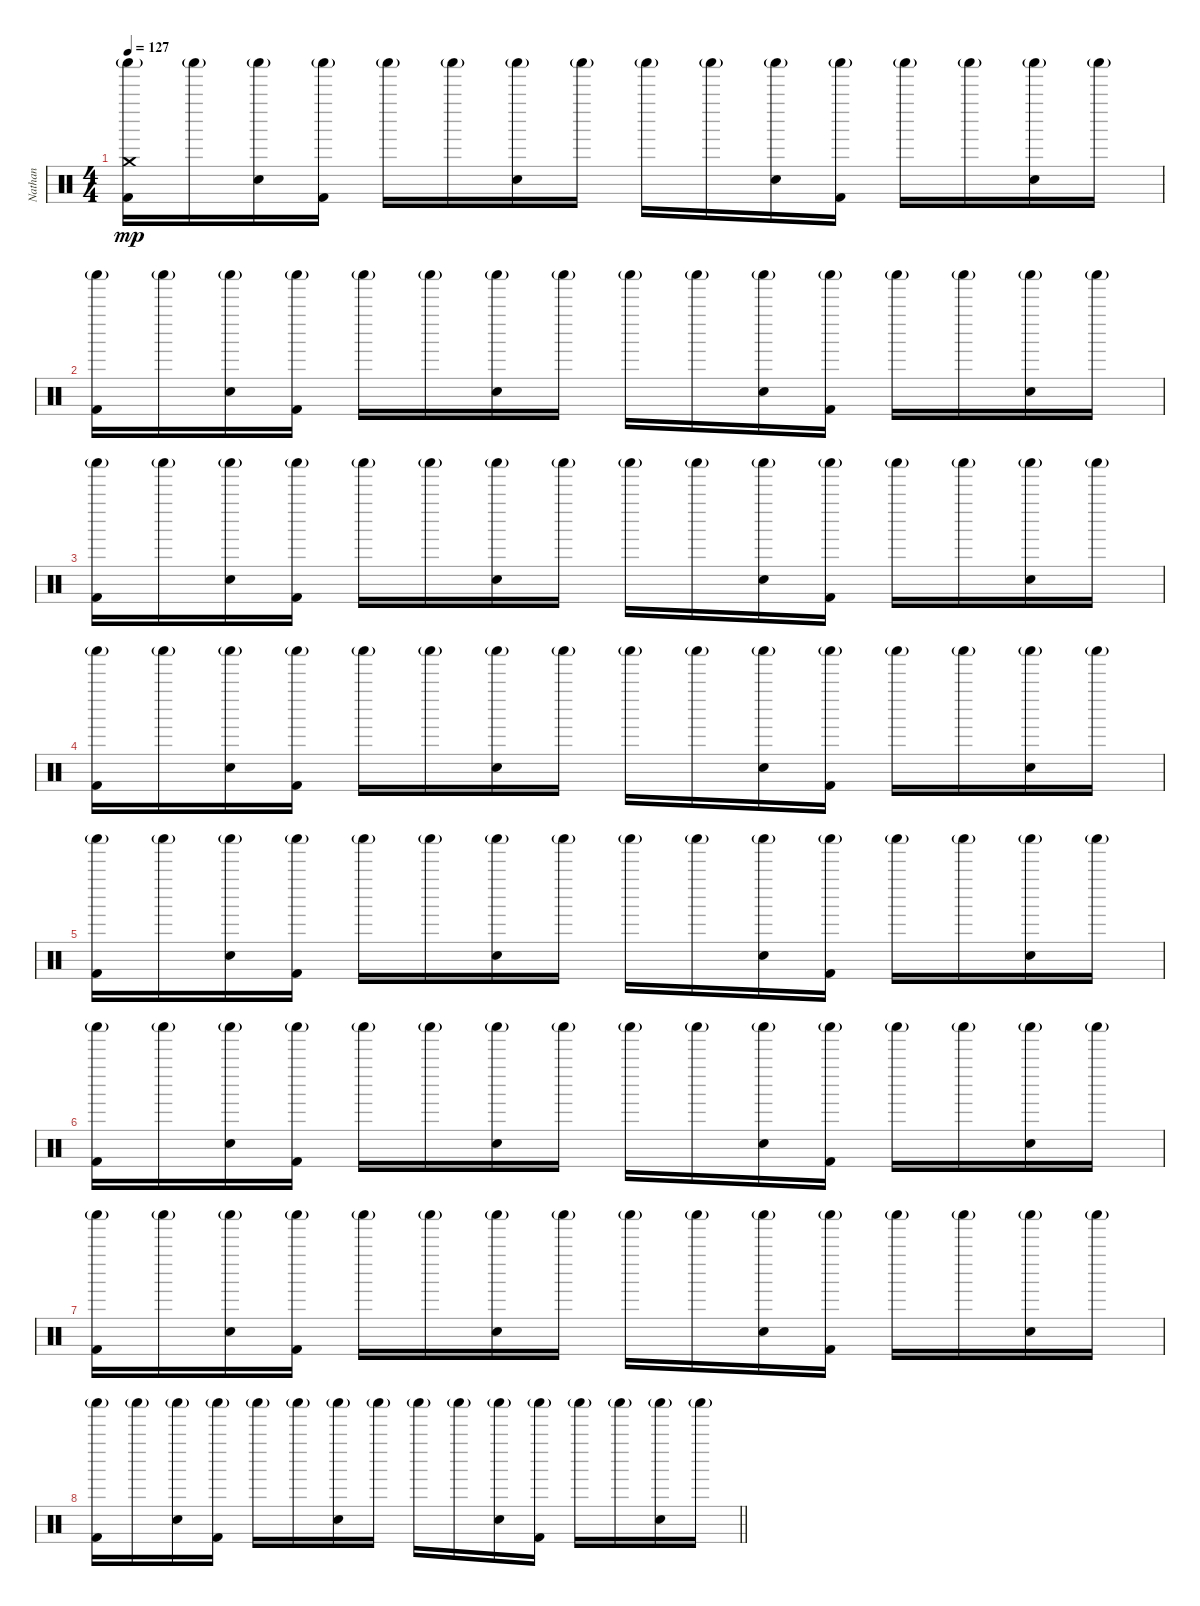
\track ("Nathan" "Nathan") {instrument percussion}
\staff {score}
\articulation defaults
\ts (4 4)
\tempo 127
\clef neutral
\ks c
("Shaker (hit)"{g} "Crash medium (hit)" "Kick (hit) 2").16{dy mp} "Shaker (hit)"{g}.16 ("Shaker (hit)"{g} "Electric Snare (hit)").16 ("Shaker (hit)"{g} "Kick (hit) 2").16 "Shaker (hit)"{g}.16 "Shaker (hit)"{g}.16 ("Shaker (hit)"{g} "Electric Snare (hit)").16 "Shaker (hit)"{g}.16 "Shaker (hit)"{g}.16 "Shaker (hit)"{g}.16 ("Shaker (hit)"{g} "Electric Snare (hit)").16 ("Shaker (hit)"{g} "Kick (hit) 2").16 "Shaker (hit)"{g}.16 "Shaker (hit)"{g}.16 ("Shaker (hit)"{g} "Electric Snare (hit)").16 "Shaker (hit)"{g}.16 |
("Shaker (hit)"{g} "Kick (hit) 2").16 "Shaker (hit)"{g}.16 ("Shaker (hit)"{g} "Electric Snare (hit)").16 ("Shaker (hit)"{g} "Kick (hit) 2").16 "Shaker (hit)"{g}.16 "Shaker (hit)"{g}.16 ("Shaker (hit)"{g} "Electric Snare (hit)").16 "Shaker (hit)"{g}.16 "Shaker (hit)"{g}.16 "Shaker (hit)"{g}.16 ("Shaker (hit)"{g} "Electric Snare (hit)").16 ("Shaker (hit)"{g} "Kick (hit) 2").16 "Shaker (hit)"{g}.16 "Shaker (hit)"{g}.16 ("Shaker (hit)"{g} "Electric Snare (hit)").16 "Shaker (hit)"{g}.16 |
("Shaker (hit)"{g} "Kick (hit) 2").16 "Shaker (hit)"{g}.16 ("Shaker (hit)"{g} "Electric Snare (hit)").16 ("Shaker (hit)"{g} "Kick (hit) 2").16 "Shaker (hit)"{g}.16 "Shaker (hit)"{g}.16 ("Shaker (hit)"{g} "Electric Snare (hit)").16 "Shaker (hit)"{g}.16 "Shaker (hit)"{g}.16 "Shaker (hit)"{g}.16 ("Shaker (hit)"{g} "Electric Snare (hit)").16 ("Shaker (hit)"{g} "Kick (hit) 2").16 "Shaker (hit)"{g}.16 "Shaker (hit)"{g}.16 ("Shaker (hit)"{g} "Electric Snare (hit)").16 "Shaker (hit)"{g}.16 |
("Shaker (hit)"{g} "Kick (hit) 2").16 "Shaker (hit)"{g}.16 ("Shaker (hit)"{g} "Electric Snare (hit)").16 ("Shaker (hit)"{g} "Kick (hit) 2").16 "Shaker (hit)"{g}.16 "Shaker (hit)"{g}.16 ("Shaker (hit)"{g} "Electric Snare (hit)").16 "Shaker (hit)"{g}.16 "Shaker (hit)"{g}.16 "Shaker (hit)"{g}.16 ("Shaker (hit)"{g} "Electric Snare (hit)").16 ("Shaker (hit)"{g} "Kick (hit) 2").16 "Shaker (hit)"{g}.16 "Shaker (hit)"{g}.16 ("Shaker (hit)"{g} "Electric Snare (hit)").16 "Shaker (hit)"{g}.16 |
("Shaker (hit)"{g} "Kick (hit) 2").16 "Shaker (hit)"{g}.16 ("Shaker (hit)"{g} "Electric Snare (hit)").16 ("Shaker (hit)"{g} "Kick (hit) 2").16 "Shaker (hit)"{g}.16 "Shaker (hit)"{g}.16 ("Shaker (hit)"{g} "Electric Snare (hit)").16 "Shaker (hit)"{g}.16 "Shaker (hit)"{g}.16 "Shaker (hit)"{g}.16 ("Shaker (hit)"{g} "Electric Snare (hit)").16 ("Shaker (hit)"{g} "Kick (hit) 2").16 "Shaker (hit)"{g}.16 "Shaker (hit)"{g}.16 ("Shaker (hit)"{g} "Electric Snare (hit)").16 "Shaker (hit)"{g}.16 |
("Shaker (hit)"{g} "Kick (hit) 2").16 "Shaker (hit)"{g}.16 ("Shaker (hit)"{g} "Electric Snare (hit)").16 ("Shaker (hit)"{g} "Kick (hit) 2").16 "Shaker (hit)"{g}.16 "Shaker (hit)"{g}.16 ("Shaker (hit)"{g} "Electric Snare (hit)").16 "Shaker (hit)"{g}.16 "Shaker (hit)"{g}.16 "Shaker (hit)"{g}.16 ("Shaker (hit)"{g} "Electric Snare (hit)").16 ("Shaker (hit)"{g} "Kick (hit) 2").16 "Shaker (hit)"{g}.16 "Shaker (hit)"{g}.16 ("Shaker (hit)"{g} "Electric Snare (hit)").16 "Shaker (hit)"{g}.16 |
("Shaker (hit)"{g} "Kick (hit) 2").16 "Shaker (hit)"{g}.16 ("Shaker (hit)"{g} "Electric Snare (hit)").16 ("Shaker (hit)"{g} "Kick (hit) 2").16 "Shaker (hit)"{g}.16 "Shaker (hit)"{g}.16 ("Shaker (hit)"{g} "Electric Snare (hit)").16 "Shaker (hit)"{g}.16 "Shaker (hit)"{g}.16 "Shaker (hit)"{g}.16 ("Shaker (hit)"{g} "Electric Snare (hit)").16 ("Shaker (hit)"{g} "Kick (hit) 2").16 "Shaker (hit)"{g}.16 "Shaker (hit)"{g}.16 ("Shaker (hit)"{g} "Electric Snare (hit)").16 "Shaker (hit)"{g}.16 |
\barLineRight lightlight
("Shaker (hit)"{g} "Kick (hit) 2").16 "Shaker (hit)"{g}.16 ("Shaker (hit)"{g} "Electric Snare (hit)").16 ("Shaker (hit)"{g} "Kick (hit) 2").16 "Shaker (hit)"{g}.16 "Shaker (hit)"{g}.16 ("Shaker (hit)"{g} "Electric Snare (hit)").16 "Shaker (hit)"{g}.16 "Shaker (hit)"{g}.16 "Shaker (hit)"{g}.16 ("Shaker (hit)"{g} "Electric Snare (hit)").16 ("Shaker (hit)"{g} "Kick (hit) 2").16 "Shaker (hit)"{g}.16 "Shaker (hit)"{g}.16 ("Shaker (hit)"{g} "Electric Snare (hit)").16 "Shaker (hit)"{g}.16
